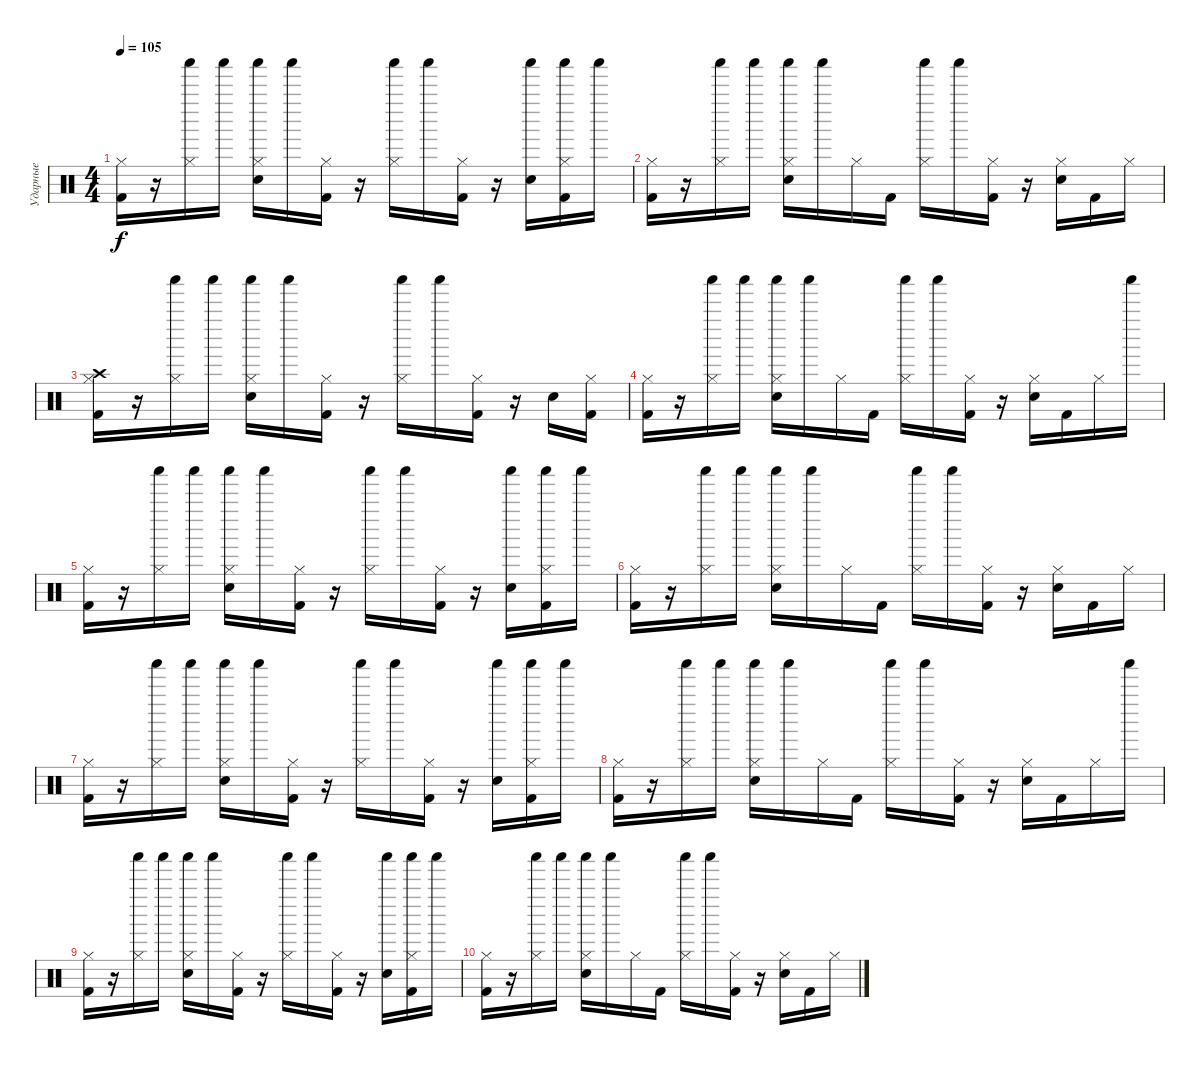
\track ("Ударные" "Ударные") {solo instrument percussion}
\staff {score}
\articulation defaults
\ts (4 4)
\tempo 105
\clef neutral
\ks c
("Kick (hit) 2" "Hi-Hat (closed)").16{dy f} r.16 ("Shaker (hit)" "Hi-Hat (closed)").16 "Shaker (hit)".16 ("Hand Clap (hit)" "Shaker (hit)" "Hi-Hat (closed)").16 "Shaker (hit)".16 ("Kick (hit) 2" "Hi-Hat (closed)").16 r.16 ("Shaker (hit)" "Hi-Hat (closed)").16 "Shaker (hit)".16 ("Kick (hit) 2" "Hi-Hat (closed)").16 r.16 ("Hand Clap (hit)" "Shaker (hit)").16 ("Kick (hit) 2" "Shaker (hit)" "Hi-Hat (closed)").16 "Shaker (hit)".16 |
("Kick (hit) 2" "Hi-Hat (closed)").16 r.16 ("Shaker (hit)" "Hi-Hat (closed)").16 "Shaker (hit)".16 ("Hand Clap (hit)" "Shaker (hit)" "Hi-Hat (closed)").16 "Shaker (hit)".16 "Hi-Hat (closed)".16 "Kick (hit) 2".16 ("Shaker (hit)" "Hi-Hat (closed)").16 "Shaker (hit)".16 ("Kick (hit) 2" "Hi-Hat (closed)").16 r.16 ("Hand Clap (hit)" "Hi-Hat (closed)").16 "Kick (hit) 2".16 "Hi-Hat (closed)".16 |
("Kick (hit) 2" "Hi-Hat (closed)" "Crash high (hit)").16 r.16 ("Shaker (hit)" "Hi-Hat (closed)").16 "Shaker (hit)".16 ("Hand Clap (hit)" "Shaker (hit)" "Hi-Hat (closed)").16 "Shaker (hit)".16 ("Kick (hit) 2" "Hi-Hat (closed)").16 r.16 ("Shaker (hit)" "Hi-Hat (closed)").16 "Shaker (hit)".16 ("Kick (hit) 2" "Hi-Hat (closed)").16 r.16 "Hand Clap (hit)".16 ("Kick (hit) 2" "Hi-Hat (closed)").16 |
("Kick (hit) 2" "Hi-Hat (closed)").16 r.16 ("Shaker (hit)" "Hi-Hat (closed)").16 "Shaker (hit)".16 ("Hand Clap (hit)" "Shaker (hit)" "Hi-Hat (closed)").16 "Shaker (hit)".16 "Hi-Hat (closed)".16 "Kick (hit) 2".16 ("Shaker (hit)" "Hi-Hat (closed)").16 "Shaker (hit)".16 ("Kick (hit) 2" "Hi-Hat (closed)").16 r.16 ("Hand Clap (hit)" "Hi-Hat (closed)").16 "Kick (hit) 2".16 "Hi-Hat (closed)".16 "Shaker (hit)".16 |
("Kick (hit) 2" "Hi-Hat (closed)").16 r.16 ("Shaker (hit)" "Hi-Hat (closed)").16 "Shaker (hit)".16 ("Hand Clap (hit)" "Shaker (hit)" "Hi-Hat (closed)").16 "Shaker (hit)".16 ("Kick (hit) 2" "Hi-Hat (closed)").16 r.16 ("Shaker (hit)" "Hi-Hat (closed)").16 "Shaker (hit)".16 ("Kick (hit) 2" "Hi-Hat (closed)").16 r.16 ("Hand Clap (hit)" "Shaker (hit)").16 ("Kick (hit) 2" "Shaker (hit)" "Hi-Hat (closed)").16 "Shaker (hit)".16 |
("Kick (hit) 2" "Hi-Hat (closed)").16 r.16 ("Shaker (hit)" "Hi-Hat (closed)").16 "Shaker (hit)".16 ("Hand Clap (hit)" "Shaker (hit)" "Hi-Hat (closed)").16 "Shaker (hit)".16 "Hi-Hat (closed)".16 "Kick (hit) 2".16 ("Shaker (hit)" "Hi-Hat (closed)").16 "Shaker (hit)".16 ("Kick (hit) 2" "Hi-Hat (closed)").16 r.16 ("Hand Clap (hit)" "Hi-Hat (closed)").16 "Kick (hit) 2".16 "Hi-Hat (closed)".16 |
("Kick (hit) 2" "Hi-Hat (closed)").16 r.16 ("Shaker (hit)" "Hi-Hat (closed)").16 "Shaker (hit)".16 ("Hand Clap (hit)" "Shaker (hit)" "Hi-Hat (closed)").16 "Shaker (hit)".16 ("Kick (hit) 2" "Hi-Hat (closed)").16 r.16 ("Shaker (hit)" "Hi-Hat (closed)").16 "Shaker (hit)".16 ("Kick (hit) 2" "Hi-Hat (closed)").16 r.16 ("Hand Clap (hit)" "Shaker (hit)").16 ("Kick (hit) 2" "Shaker (hit)" "Hi-Hat (closed)").16 "Shaker (hit)".16 |
("Kick (hit) 2" "Hi-Hat (closed)").16 r.16 ("Shaker (hit)" "Hi-Hat (closed)").16 "Shaker (hit)".16 ("Hand Clap (hit)" "Shaker (hit)" "Hi-Hat (closed)").16 "Shaker (hit)".16 "Hi-Hat (closed)".16 "Kick (hit) 2".16 ("Shaker (hit)" "Hi-Hat (closed)").16 "Shaker (hit)".16 ("Kick (hit) 2" "Hi-Hat (closed)").16 r.16 ("Hand Clap (hit)" "Hi-Hat (closed)").16 "Kick (hit) 2".16 "Hi-Hat (closed)".16 "Shaker (hit)".16 |
("Kick (hit) 2" "Hi-Hat (closed)").16 r.16 ("Shaker (hit)" "Hi-Hat (closed)").16 "Shaker (hit)".16 ("Hand Clap (hit)" "Shaker (hit)" "Hi-Hat (closed)").16 "Shaker (hit)".16 ("Kick (hit) 2" "Hi-Hat (closed)").16 r.16 ("Shaker (hit)" "Hi-Hat (closed)").16 "Shaker (hit)".16 ("Kick (hit) 2" "Hi-Hat (closed)").16 r.16 ("Hand Clap (hit)" "Shaker (hit)").16 ("Kick (hit) 2" "Shaker (hit)" "Hi-Hat (closed)").16 "Shaker (hit)".16 |
("Kick (hit) 2" "Hi-Hat (closed)").16 r.16 ("Shaker (hit)" "Hi-Hat (closed)").16 "Shaker (hit)".16 ("Hand Clap (hit)" "Shaker (hit)" "Hi-Hat (closed)").16 "Shaker (hit)".16 "Hi-Hat (closed)".16 "Kick (hit) 2".16 ("Shaker (hit)" "Hi-Hat (closed)").16 "Shaker (hit)".16 ("Kick (hit) 2" "Hi-Hat (closed)").16 r.16 ("Hand Clap (hit)" "Hi-Hat (closed)").16 "Kick (hit) 2".16 "Hi-Hat (closed)".16
